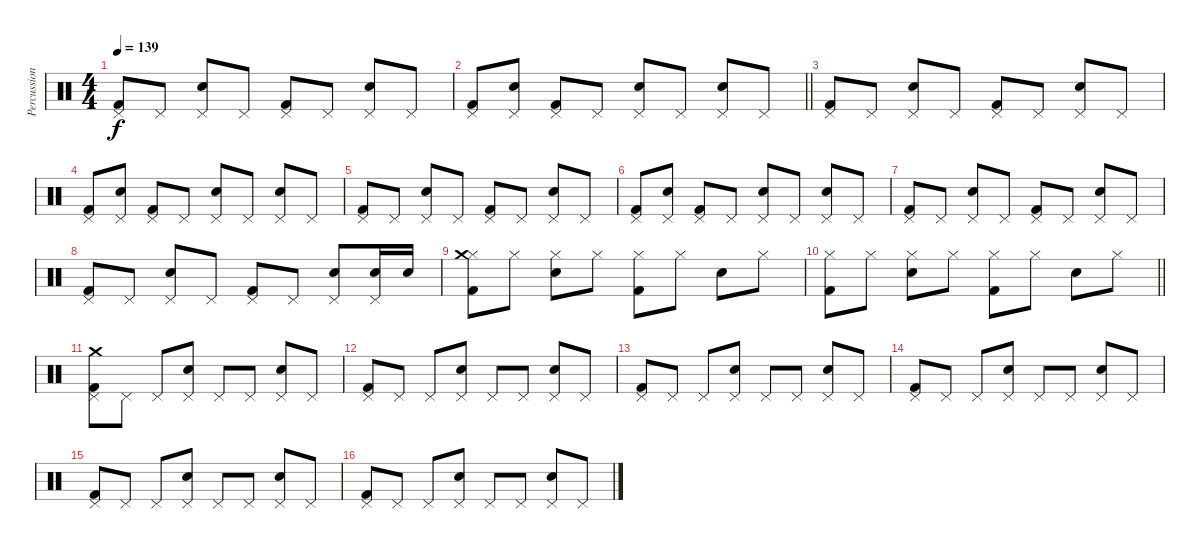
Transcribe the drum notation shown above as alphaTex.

\track ("Percussion" "Percussion") {instrument percussion}
\staff {score}
\articulation defaults
\ts (4 4)
\tempo 139
\clef neutral
\ks c
("Kick (hit) 2" "Pedal Hi-Hat (hit)").8{dy f} "Pedal Hi-Hat (hit)".8 ("Snare (hit) 2" "Pedal Hi-Hat (hit)").8 "Pedal Hi-Hat (hit)".8 ("Kick (hit) 2" "Pedal Hi-Hat (hit)").8 "Pedal Hi-Hat (hit)".8 ("Snare (hit) 2" "Pedal Hi-Hat (hit)").8 "Pedal Hi-Hat (hit)".8 |
\barLineRight lightlight
("Kick (hit) 2" "Pedal Hi-Hat (hit)").8 ("Snare (hit) 2" "Pedal Hi-Hat (hit)").8 ("Kick (hit) 2" "Pedal Hi-Hat (hit)").8 "Pedal Hi-Hat (hit)".8 ("Snare (hit) 2" "Pedal Hi-Hat (hit)").8 "Pedal Hi-Hat (hit)".8 ("Snare (hit) 2" "Pedal Hi-Hat (hit)").8 "Pedal Hi-Hat (hit)".8 |
("Kick (hit) 2" "Pedal Hi-Hat (hit)").8 "Pedal Hi-Hat (hit)".8 ("Snare (hit) 2" "Pedal Hi-Hat (hit)").8 "Pedal Hi-Hat (hit)".8 ("Kick (hit) 2" "Pedal Hi-Hat (hit)").8 "Pedal Hi-Hat (hit)".8 ("Snare (hit) 2" "Pedal Hi-Hat (hit)").8 "Pedal Hi-Hat (hit)".8 |
("Kick (hit) 2" "Pedal Hi-Hat (hit)").8 ("Snare (hit) 2" "Pedal Hi-Hat (hit)").8 ("Kick (hit) 2" "Pedal Hi-Hat (hit)").8 "Pedal Hi-Hat (hit)".8 ("Snare (hit) 2" "Pedal Hi-Hat (hit)").8 "Pedal Hi-Hat (hit)".8 ("Snare (hit) 2" "Pedal Hi-Hat (hit)").8 "Pedal Hi-Hat (hit)".8 |
("Kick (hit) 2" "Pedal Hi-Hat (hit)").8 "Pedal Hi-Hat (hit)".8 ("Snare (hit) 2" "Pedal Hi-Hat (hit)").8 "Pedal Hi-Hat (hit)".8 ("Kick (hit) 2" "Pedal Hi-Hat (hit)").8 "Pedal Hi-Hat (hit)".8 ("Snare (hit) 2" "Pedal Hi-Hat (hit)").8 "Pedal Hi-Hat (hit)".8 |
("Kick (hit) 2" "Pedal Hi-Hat (hit)").8 ("Snare (hit) 2" "Pedal Hi-Hat (hit)").8 ("Kick (hit) 2" "Pedal Hi-Hat (hit)").8 "Pedal Hi-Hat (hit)".8 ("Snare (hit) 2" "Pedal Hi-Hat (hit)").8 "Pedal Hi-Hat (hit)".8 ("Snare (hit) 2" "Pedal Hi-Hat (hit)").8 "Pedal Hi-Hat (hit)".8 |
("Kick (hit) 2" "Pedal Hi-Hat (hit)").8 "Pedal Hi-Hat (hit)".8 ("Snare (hit) 2" "Pedal Hi-Hat (hit)").8 "Pedal Hi-Hat (hit)".8 ("Kick (hit) 2" "Pedal Hi-Hat (hit)").8 "Pedal Hi-Hat (hit)".8 ("Snare (hit) 2" "Pedal Hi-Hat (hit)").8 "Pedal Hi-Hat (hit)".8 |
("Kick (hit) 2" "Pedal Hi-Hat (hit)").8 "Pedal Hi-Hat (hit)".8 ("Snare (hit) 2" "Pedal Hi-Hat (hit)").8 "Pedal Hi-Hat (hit)".8 ("Kick (hit) 2" "Pedal Hi-Hat (hit)").8 "Pedal Hi-Hat (hit)".8 ("Snare (hit) 2" "Pedal Hi-Hat (hit)").8 ("Snare (hit) 2" "Pedal Hi-Hat (hit)").16 "Snare (hit) 2".16 |
("Kick (hit) 2" "Hi-Hat (closed)" "Crash medium (hit)").8 "Hi-Hat (closed)".8 ("Snare (hit) 2" "Hi-Hat (closed)").8 "Hi-Hat (closed)".8 ("Kick (hit) 2" "Hi-Hat (closed)").8 "Hi-Hat (closed)".8 "Snare (hit) 2".8 "Hi-Hat (closed)".8 |
\barLineRight lightlight
("Kick (hit) 2" "Hi-Hat (closed)").8 "Hi-Hat (closed)".8 ("Snare (hit) 2" "Hi-Hat (closed)").8 "Hi-Hat (closed)".8 ("Kick (hit) 2" "Hi-Hat (closed)").8 "Hi-Hat (closed)".8 "Snare (hit) 2".8 "Hi-Hat (closed)".8 |
\section ("" "")
("Crash medium (hit)" "Pedal Hi-Hat (hit)" "Kick (hit) 2").8 "Pedal Hi-Hat (hit)".8 "Pedal Hi-Hat (hit)".8 ("Snare (hit) 2" "Pedal Hi-Hat (hit)").8 "Pedal Hi-Hat (hit)".8 "Pedal Hi-Hat (hit)".8 ("Snare (hit) 2" "Pedal Hi-Hat (hit)").8 "Pedal Hi-Hat (hit)".8 |
("Pedal Hi-Hat (hit)" "Kick (hit) 2").8 "Pedal Hi-Hat (hit)".8 "Pedal Hi-Hat (hit)".8 ("Snare (hit) 2" "Pedal Hi-Hat (hit)").8 "Pedal Hi-Hat (hit)".8 "Pedal Hi-Hat (hit)".8 ("Snare (hit) 2" "Pedal Hi-Hat (hit)").8 "Pedal Hi-Hat (hit)".8 |
("Pedal Hi-Hat (hit)" "Kick (hit) 2").8 "Pedal Hi-Hat (hit)".8 "Pedal Hi-Hat (hit)".8 ("Snare (hit) 2" "Pedal Hi-Hat (hit)").8 "Pedal Hi-Hat (hit)".8 "Pedal Hi-Hat (hit)".8 ("Snare (hit) 2" "Pedal Hi-Hat (hit)").8 "Pedal Hi-Hat (hit)".8 |
("Pedal Hi-Hat (hit)" "Kick (hit) 2").8 "Pedal Hi-Hat (hit)".8 "Pedal Hi-Hat (hit)".8 ("Snare (hit) 2" "Pedal Hi-Hat (hit)").8 "Pedal Hi-Hat (hit)".8 "Pedal Hi-Hat (hit)".8 ("Snare (hit) 2" "Pedal Hi-Hat (hit)").8 "Pedal Hi-Hat (hit)".8 |
("Pedal Hi-Hat (hit)" "Kick (hit) 2").8 "Pedal Hi-Hat (hit)".8 "Pedal Hi-Hat (hit)".8 ("Snare (hit) 2" "Pedal Hi-Hat (hit)").8 "Pedal Hi-Hat (hit)".8 "Pedal Hi-Hat (hit)".8 ("Snare (hit) 2" "Pedal Hi-Hat (hit)").8 "Pedal Hi-Hat (hit)".8 |
("Pedal Hi-Hat (hit)" "Kick (hit) 2").8 "Pedal Hi-Hat (hit)".8 "Pedal Hi-Hat (hit)".8 ("Snare (hit) 2" "Pedal Hi-Hat (hit)").8 "Pedal Hi-Hat (hit)".8 "Pedal Hi-Hat (hit)".8 ("Snare (hit) 2" "Pedal Hi-Hat (hit)").8 "Pedal Hi-Hat (hit)".8
